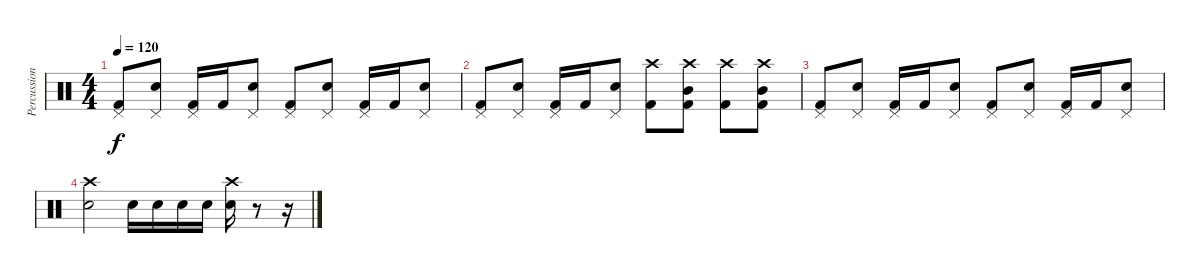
\track ("Percussion" "Percussion") {instrument percussion}
\staff {score}
\articulation defaults
\ts (4 4)
\tempo 120
\clef neutral
\ks c
("Pedal Hi-Hat (hit)" "Kick (hit) 2").8{dy f} ("Pedal Hi-Hat (hit)" "Snare (hit) 2").8 ("Pedal Hi-Hat (hit)" "Kick (hit) 2").16 "Kick (hit) 2".16 ("Pedal Hi-Hat (hit)" "Snare (hit) 2").8 ("Pedal Hi-Hat (hit)" "Kick (hit) 2").8 ("Pedal Hi-Hat (hit)" "Snare (hit) 2").8 ("Pedal Hi-Hat (hit)" "Kick (hit) 2").16 "Kick (hit) 2".16 ("Pedal Hi-Hat (hit)" "Snare (hit) 2").8 |
("Pedal Hi-Hat (hit)" "Kick (hit) 2").8 ("Pedal Hi-Hat (hit)" "Snare (hit) 2").8 ("Pedal Hi-Hat (hit)" "Kick (hit) 2").16 "Kick (hit) 2".16 ("Pedal Hi-Hat (hit)" "Snare (hit) 2").8 ("Crash high (hit)" "Kick (hit) 2").8 ("Crash high (hit)" "Mid Tom (hit)" "Kick (hit) 2").8 ("Crash high (hit)" "Kick (hit) 2").8 ("Crash high (hit)" "Mid Tom (hit)" "Kick (hit) 2").8 |
("Pedal Hi-Hat (hit)" "Kick (hit) 2").8 ("Pedal Hi-Hat (hit)" "Snare (hit) 2").8 ("Pedal Hi-Hat (hit)" "Kick (hit) 2").16 "Kick (hit) 2".16 ("Pedal Hi-Hat (hit)" "Snare (hit) 2").8 ("Pedal Hi-Hat (hit)" "Kick (hit) 2").8 ("Pedal Hi-Hat (hit)" "Snare (hit) 2").8 ("Pedal Hi-Hat (hit)" "Kick (hit) 2").16 "Kick (hit) 2".16 ("Pedal Hi-Hat (hit)" "Snare (hit) 2").8 |
("Crash high (hit)" "Snare (hit) 2").2 "Snare (hit) 2".16 "Snare (hit) 2".16 "Snare (hit) 2".16 "Snare (hit) 2".16 ("Crash high (hit)" "Snare (hit) 2").16 r.8 r.16
